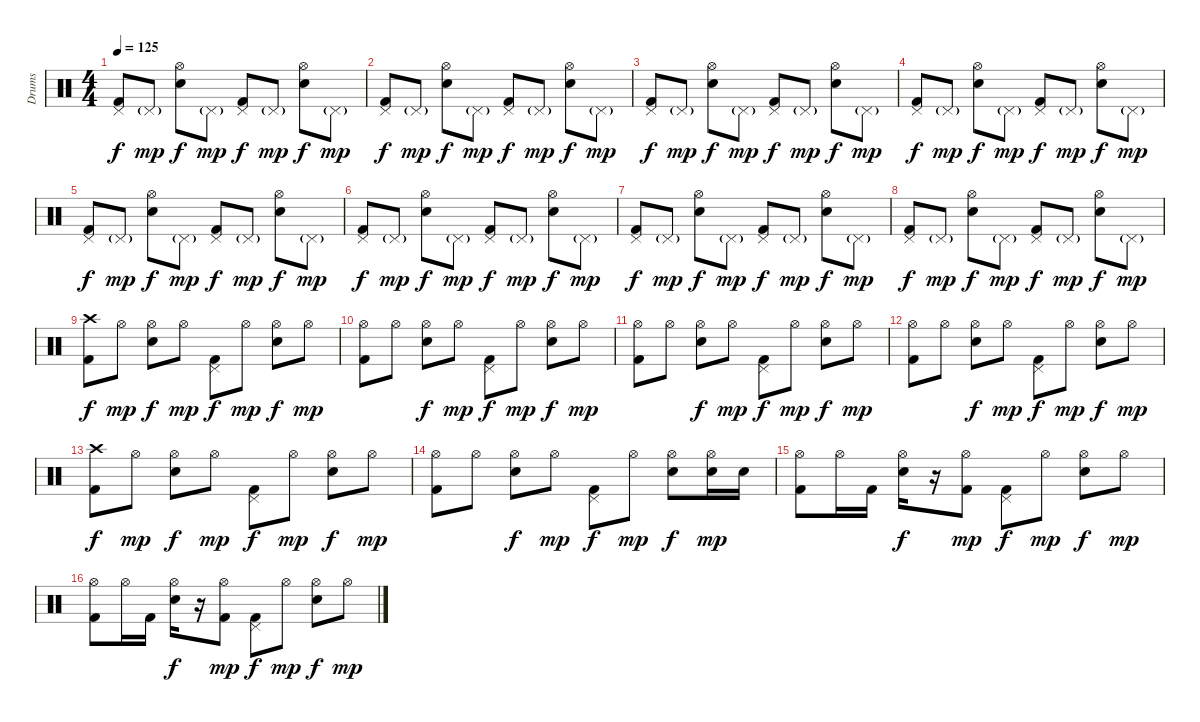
\track ("Drums" "Drums") {instrument percussion}
\staff {score}
\articulation defaults
\ts (4 4)
\tempo 125
\clef neutral
\ks c
("Pedal Hi-Hat (hit)" "Kick (hit) 2").8{dy f} "Pedal Hi-Hat (hit)"{g}.8{dy mp} ("Hi-Hat (open)" "Snare (hit) 2").8{dy f} "Pedal Hi-Hat (hit)"{g}.8{dy mp} ("Pedal Hi-Hat (hit)" "Kick (hit) 2").8{dy f} "Pedal Hi-Hat (hit)"{g}.8{dy mp} ("Hi-Hat (open)" "Snare (hit) 2").8{dy f} "Pedal Hi-Hat (hit)"{g}.8{dy mp} |
("Pedal Hi-Hat (hit)" "Kick (hit) 2").8{dy f} "Pedal Hi-Hat (hit)"{g}.8{dy mp} ("Hi-Hat (open)" "Snare (hit) 2").8{dy f} "Pedal Hi-Hat (hit)"{g}.8{dy mp} ("Pedal Hi-Hat (hit)" "Kick (hit) 2").8{dy f} "Pedal Hi-Hat (hit)"{g}.8{dy mp} ("Hi-Hat (open)" "Snare (hit) 2").8{dy f} "Pedal Hi-Hat (hit)"{g}.8{dy mp} |
("Pedal Hi-Hat (hit)" "Kick (hit) 2").8{dy f} "Pedal Hi-Hat (hit)"{g}.8{dy mp} ("Hi-Hat (open)" "Snare (hit) 2").8{dy f} "Pedal Hi-Hat (hit)"{g}.8{dy mp} ("Pedal Hi-Hat (hit)" "Kick (hit) 2").8{dy f} "Pedal Hi-Hat (hit)"{g}.8{dy mp} ("Hi-Hat (open)" "Snare (hit) 2").8{dy f} "Pedal Hi-Hat (hit)"{g}.8{dy mp} |
("Pedal Hi-Hat (hit)" "Kick (hit) 2").8{dy f} "Pedal Hi-Hat (hit)"{g}.8{dy mp} ("Hi-Hat (open)" "Snare (hit) 2").8{dy f} "Pedal Hi-Hat (hit)"{g}.8{dy mp} ("Pedal Hi-Hat (hit)" "Kick (hit) 2").8{dy f} "Pedal Hi-Hat (hit)"{g}.8{dy mp} ("Hi-Hat (open)" "Snare (hit) 2").8{dy f} "Pedal Hi-Hat (hit)"{g}.8{dy mp} |
("Pedal Hi-Hat (hit)" "Kick (hit) 2").8{dy f} "Pedal Hi-Hat (hit)"{g}.8{dy mp} ("Hi-Hat (open)" "Snare (hit) 2").8{dy f} "Pedal Hi-Hat (hit)"{g}.8{dy mp} ("Pedal Hi-Hat (hit)" "Kick (hit) 2").8{dy f} "Pedal Hi-Hat (hit)"{g}.8{dy mp} ("Hi-Hat (open)" "Snare (hit) 2").8{dy f} "Pedal Hi-Hat (hit)"{g}.8{dy mp} |
("Pedal Hi-Hat (hit)" "Kick (hit) 2").8{dy f} "Pedal Hi-Hat (hit)"{g}.8{dy mp} ("Hi-Hat (open)" "Snare (hit) 2").8{dy f} "Pedal Hi-Hat (hit)"{g}.8{dy mp} ("Pedal Hi-Hat (hit)" "Kick (hit) 2").8{dy f} "Pedal Hi-Hat (hit)"{g}.8{dy mp} ("Hi-Hat (open)" "Snare (hit) 2").8{dy f} "Pedal Hi-Hat (hit)"{g}.8{dy mp} |
("Pedal Hi-Hat (hit)" "Kick (hit) 2").8{dy f} "Pedal Hi-Hat (hit)"{g}.8{dy mp} ("Hi-Hat (open)" "Snare (hit) 2").8{dy f} "Pedal Hi-Hat (hit)"{g}.8{dy mp} ("Pedal Hi-Hat (hit)" "Kick (hit) 2").8{dy f} "Pedal Hi-Hat (hit)"{g}.8{dy mp} ("Hi-Hat (open)" "Snare (hit) 2").8{dy f} "Pedal Hi-Hat (hit)"{g}.8{dy mp} |
("Pedal Hi-Hat (hit)" "Kick (hit) 2").8{dy f} "Pedal Hi-Hat (hit)"{g}.8{dy mp} ("Hi-Hat (open)" "Snare (hit) 2").8{dy f} "Pedal Hi-Hat (hit)"{g}.8{dy mp} ("Pedal Hi-Hat (hit)" "Kick (hit) 2").8{dy f} "Pedal Hi-Hat (hit)"{g}.8{dy mp} ("Hi-Hat (open)" "Snare (hit) 2").8{dy f} "Pedal Hi-Hat (hit)"{g}.8{dy mp} |
("Crash high (hit)" "Kick (hit) 2").8{dy f} "Hi-Hat (open)".8{dy mp} ("Hi-Hat (open)" "Snare (hit) 2").8{dy f} "Hi-Hat (open)".8{dy mp} ("Pedal Hi-Hat (hit)" "Kick (hit) 2").8{dy f} "Hi-Hat (open)".8{dy mp} ("Hi-Hat (open)" "Snare (hit) 2").8{dy f} "Hi-Hat (open)".8{dy mp} |
("Hi-Hat (open)" "Kick (hit) 2").8 "Hi-Hat (open)".8 ("Hi-Hat (open)" "Snare (hit) 2").8{dy f} "Hi-Hat (open)".8{dy mp} ("Pedal Hi-Hat (hit)" "Kick (hit) 2").8{dy f} "Hi-Hat (open)".8{dy mp} ("Hi-Hat (open)" "Snare (hit) 2").8{dy f} "Hi-Hat (open)".8{dy mp} |
("Hi-Hat (open)" "Kick (hit) 2").8 "Hi-Hat (open)".8 ("Hi-Hat (open)" "Snare (hit) 2").8{dy f} "Hi-Hat (open)".8{dy mp} ("Pedal Hi-Hat (hit)" "Kick (hit) 2").8{dy f} "Hi-Hat (open)".8{dy mp} ("Hi-Hat (open)" "Snare (hit) 2").8{dy f} "Hi-Hat (open)".8{dy mp} |
("Hi-Hat (open)" "Kick (hit) 2").8 "Hi-Hat (open)".8 ("Hi-Hat (open)" "Snare (hit) 2").8{dy f} "Hi-Hat (open)".8{dy mp} ("Pedal Hi-Hat (hit)" "Kick (hit) 2").8{dy f} "Hi-Hat (open)".8{dy mp} ("Hi-Hat (open)" "Snare (hit) 2").8{dy f} "Hi-Hat (open)".8{dy mp} |
("Crash high (hit)" "Kick (hit) 2").8{dy f} "Hi-Hat (open)".8{dy mp} ("Hi-Hat (open)" "Snare (hit) 2").8{dy f} "Hi-Hat (open)".8{dy mp} ("Pedal Hi-Hat (hit)" "Kick (hit) 2").8{dy f} "Hi-Hat (open)".8{dy mp} ("Hi-Hat (open)" "Snare (hit) 2").8{dy f} "Hi-Hat (open)".8{dy mp} |
("Hi-Hat (open)" "Kick (hit) 2").8 "Hi-Hat (open)".8 ("Hi-Hat (open)" "Snare (hit) 2").8{dy f} "Hi-Hat (open)".8{dy mp} ("Pedal Hi-Hat (hit)" "Kick (hit) 2").8{dy f} "Hi-Hat (open)".8{dy mp} ("Hi-Hat (open)" "Snare (hit) 2").8{dy f} ("Hi-Hat (open)" "Snare (hit) 2").16{dy mp} "Snare (hit) 2".16 |
("Hi-Hat (open)" "Kick (hit) 2").8 "Hi-Hat (open)".16 "Kick (hit) 2".16 ("Hi-Hat (open)" "Snare (hit) 2").16{dy f} r.16 ("Hi-Hat (open)" "Kick (hit) 2").8{dy mp} ("Pedal Hi-Hat (hit)" "Kick (hit) 2").8{dy f} "Hi-Hat (open)".8{dy mp} ("Hi-Hat (open)" "Snare (hit) 2").8{dy f} "Hi-Hat (open)".8{dy mp} |
("Hi-Hat (open)" "Kick (hit) 2").8 "Hi-Hat (open)".16 "Kick (hit) 2".16 ("Hi-Hat (open)" "Snare (hit) 2").16{dy f} r.16 ("Hi-Hat (open)" "Kick (hit) 2").8{dy mp} ("Pedal Hi-Hat (hit)" "Kick (hit) 2").8{dy f} "Hi-Hat (open)".8{dy mp} ("Hi-Hat (open)" "Snare (hit) 2").8{dy f} "Hi-Hat (open)".8{dy mp}
